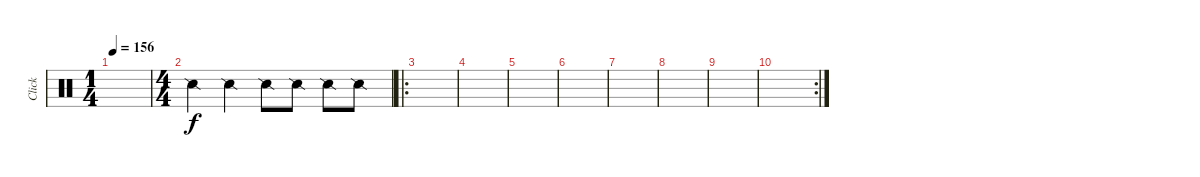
\track ("Click" "Click") {instrument percussion}
\staff {score}
\articulation defaults
\ts (1 4)
\tempo 156
\clef neutral
\ks c
|
\ts (4 4)
"Snare (side stick) 2".4 "Snare (side stick) 2".4 "Snare (side stick) 2".8 "Snare (side stick) 2".8 "Snare (side stick) 2".8 "Snare (side stick) 2".8 |
\ro
|
|
|
|
|
|
|
\rc 2
